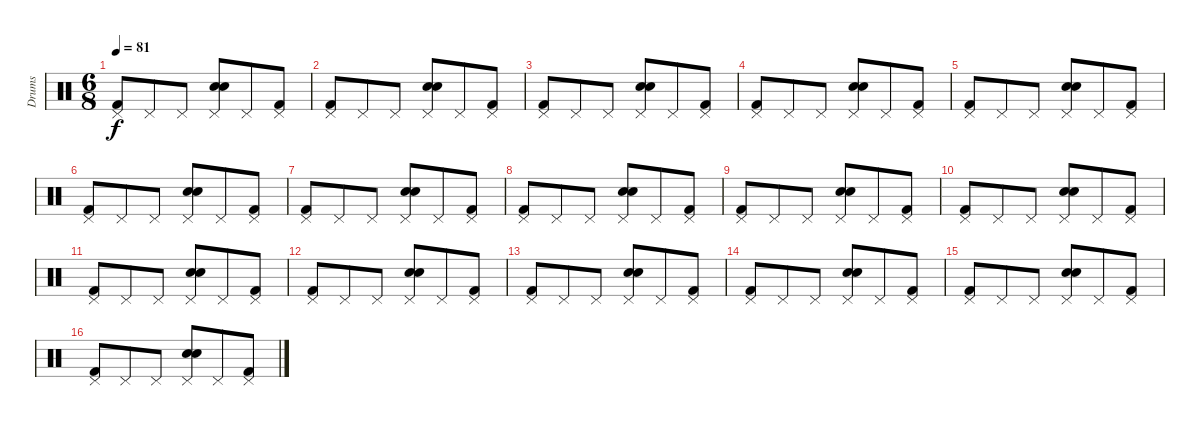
\track ("Drums" "Drums") {instrument percussion}
\staff {score}
\articulation defaults
\ts (6 8)
\tempo 81
\clef neutral
\ks c
("Kick (hit) 2" "Pedal Hi-Hat (hit)").8{dy f} "Pedal Hi-Hat (hit)".8 "Pedal Hi-Hat (hit)".8 ("Electric Snare (hit)" "Snare (hit) 2" "Pedal Hi-Hat (hit)").8 "Pedal Hi-Hat (hit)".8 ("Kick (hit) 2" "Pedal Hi-Hat (hit)").8 |
("Kick (hit) 2" "Pedal Hi-Hat (hit)").8 "Pedal Hi-Hat (hit)".8 "Pedal Hi-Hat (hit)".8 ("Electric Snare (hit)" "Snare (hit) 2" "Pedal Hi-Hat (hit)").8 "Pedal Hi-Hat (hit)".8 ("Kick (hit) 2" "Pedal Hi-Hat (hit)").8 |
("Kick (hit) 2" "Pedal Hi-Hat (hit)").8 "Pedal Hi-Hat (hit)".8 "Pedal Hi-Hat (hit)".8 ("Electric Snare (hit)" "Snare (hit) 2" "Pedal Hi-Hat (hit)").8 "Pedal Hi-Hat (hit)".8 ("Kick (hit) 2" "Pedal Hi-Hat (hit)").8 |
("Kick (hit) 2" "Pedal Hi-Hat (hit)").8 "Pedal Hi-Hat (hit)".8 "Pedal Hi-Hat (hit)".8 ("Electric Snare (hit)" "Snare (hit) 2" "Pedal Hi-Hat (hit)").8 "Pedal Hi-Hat (hit)".8 ("Kick (hit) 2" "Pedal Hi-Hat (hit)").8 |
("Kick (hit) 2" "Pedal Hi-Hat (hit)").8 "Pedal Hi-Hat (hit)".8 "Pedal Hi-Hat (hit)".8 ("Electric Snare (hit)" "Snare (hit) 2" "Pedal Hi-Hat (hit)").8 "Pedal Hi-Hat (hit)".8 ("Kick (hit) 2" "Pedal Hi-Hat (hit)").8 |
("Kick (hit) 2" "Pedal Hi-Hat (hit)").8 "Pedal Hi-Hat (hit)".8 "Pedal Hi-Hat (hit)".8 ("Electric Snare (hit)" "Snare (hit) 2" "Pedal Hi-Hat (hit)").8 "Pedal Hi-Hat (hit)".8 ("Kick (hit) 2" "Pedal Hi-Hat (hit)").8 |
("Kick (hit) 2" "Pedal Hi-Hat (hit)").8 "Pedal Hi-Hat (hit)".8 "Pedal Hi-Hat (hit)".8 ("Electric Snare (hit)" "Snare (hit) 2" "Pedal Hi-Hat (hit)").8 "Pedal Hi-Hat (hit)".8 ("Kick (hit) 2" "Pedal Hi-Hat (hit)").8 |
("Kick (hit) 2" "Pedal Hi-Hat (hit)").8 "Pedal Hi-Hat (hit)".8 "Pedal Hi-Hat (hit)".8 ("Electric Snare (hit)" "Snare (hit) 2" "Pedal Hi-Hat (hit)").8 "Pedal Hi-Hat (hit)".8 ("Kick (hit) 2" "Pedal Hi-Hat (hit)").8 |
("Kick (hit) 2" "Pedal Hi-Hat (hit)").8 "Pedal Hi-Hat (hit)".8 "Pedal Hi-Hat (hit)".8 ("Electric Snare (hit)" "Snare (hit) 2" "Pedal Hi-Hat (hit)").8 "Pedal Hi-Hat (hit)".8 ("Kick (hit) 2" "Pedal Hi-Hat (hit)").8 |
("Kick (hit) 2" "Pedal Hi-Hat (hit)").8 "Pedal Hi-Hat (hit)".8 "Pedal Hi-Hat (hit)".8 ("Electric Snare (hit)" "Snare (hit) 2" "Pedal Hi-Hat (hit)").8 "Pedal Hi-Hat (hit)".8 ("Kick (hit) 2" "Pedal Hi-Hat (hit)").8 |
("Kick (hit) 2" "Pedal Hi-Hat (hit)").8 "Pedal Hi-Hat (hit)".8 "Pedal Hi-Hat (hit)".8 ("Electric Snare (hit)" "Snare (hit) 2" "Pedal Hi-Hat (hit)").8 "Pedal Hi-Hat (hit)".8 ("Kick (hit) 2" "Pedal Hi-Hat (hit)").8 |
("Kick (hit) 2" "Pedal Hi-Hat (hit)").8 "Pedal Hi-Hat (hit)".8 "Pedal Hi-Hat (hit)".8 ("Electric Snare (hit)" "Snare (hit) 2" "Pedal Hi-Hat (hit)").8 "Pedal Hi-Hat (hit)".8 ("Kick (hit) 2" "Pedal Hi-Hat (hit)").8 |
("Kick (hit) 2" "Pedal Hi-Hat (hit)").8 "Pedal Hi-Hat (hit)".8 "Pedal Hi-Hat (hit)".8 ("Electric Snare (hit)" "Snare (hit) 2" "Pedal Hi-Hat (hit)").8 "Pedal Hi-Hat (hit)".8 ("Kick (hit) 2" "Pedal Hi-Hat (hit)").8 |
("Kick (hit) 2" "Pedal Hi-Hat (hit)").8 "Pedal Hi-Hat (hit)".8 "Pedal Hi-Hat (hit)".8 ("Electric Snare (hit)" "Snare (hit) 2" "Pedal Hi-Hat (hit)").8 "Pedal Hi-Hat (hit)".8 ("Kick (hit) 2" "Pedal Hi-Hat (hit)").8 |
("Kick (hit) 2" "Pedal Hi-Hat (hit)").8 "Pedal Hi-Hat (hit)".8 "Pedal Hi-Hat (hit)".8 ("Electric Snare (hit)" "Snare (hit) 2" "Pedal Hi-Hat (hit)").8 "Pedal Hi-Hat (hit)".8 ("Kick (hit) 2" "Pedal Hi-Hat (hit)").8 |
("Kick (hit) 2" "Pedal Hi-Hat (hit)").8 "Pedal Hi-Hat (hit)".8 "Pedal Hi-Hat (hit)".8 ("Electric Snare (hit)" "Snare (hit) 2" "Pedal Hi-Hat (hit)").8 "Pedal Hi-Hat (hit)".8 ("Kick (hit) 2" "Pedal Hi-Hat (hit)").8
